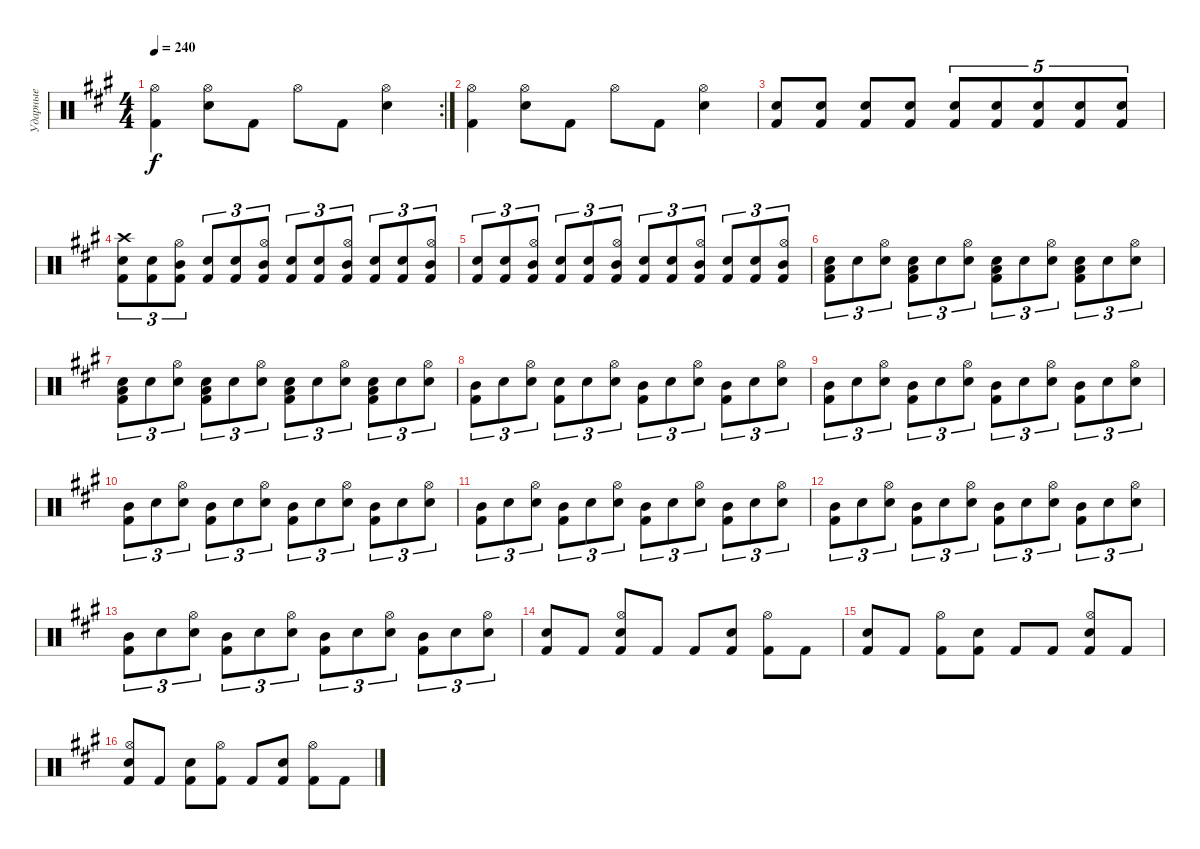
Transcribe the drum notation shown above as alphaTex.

\track ("Ударные" "Ударные") {instrument percussion}
\staff {score}
\articulation defaults
\rc 2
\ts (4 4)
\tempo 240
\clef neutral
\ks a
("Kick (hit) 2" "Hi-Hat (open)").4{dy f} ("Snare (hit) 2" "Hi-Hat (open)").8 "Kick (hit) 2".8 "Hi-Hat (open)".8 "Kick (hit) 2".8 ("Snare (hit) 2" "Hi-Hat (open)").4 |
("Kick (hit) 2" "Hi-Hat (open)").4 ("Snare (hit) 2" "Hi-Hat (open)").8 "Kick (hit) 2".8 "Hi-Hat (open)".8 "Kick (hit) 2".8 ("Snare (hit) 2" "Hi-Hat (open)").4 |
("Kick (hit) 2" "Snare (hit) 2").8 ("Kick (hit) 2" "Snare (hit) 2").8 ("Kick (hit) 2" "Snare (hit) 2").8 ("Kick (hit) 2" "Snare (hit) 2").8 ("Kick (hit) 2" "Snare (hit) 2").8{tu (5 4)} ("Kick (hit) 2" "Snare (hit) 2").8{tu (5 4)} ("Kick (hit) 2" "Snare (hit) 2").8{tu (5 4)} ("Kick (hit) 2" "Snare (hit) 2").8{tu (5 4)} ("Kick (hit) 2" "Snare (hit) 2").8{tu (5 4)} |
("Kick (hit) 2" "Snare (hit) 2" "Crash high (hit)").8{tu (3 2)} ("Kick (hit) 2" "Snare (hit) 2").8{tu (3 2)} ("Kick (hit) 2" "Mid Tom (hit)" "Hi-Hat (open)").8{tu (3 2)} ("Kick (hit) 2" "Snare (hit) 2").8{tu (3 2)} ("Kick (hit) 2" "Snare (hit) 2").8{tu (3 2)} ("Kick (hit) 2" "Mid Tom (hit)" "Hi-Hat (open)").8{tu (3 2)} ("Kick (hit) 2" "Snare (hit) 2").8{tu (3 2)} ("Kick (hit) 2" "Snare (hit) 2").8{tu (3 2)} ("Kick (hit) 2" "Mid Tom (hit)" "Hi-Hat (open)").8{tu (3 2)} ("Kick (hit) 2" "Snare (hit) 2").8{tu (3 2)} ("Kick (hit) 2" "Snare (hit) 2").8{tu (3 2)} ("Kick (hit) 2" "Mid Tom (hit)" "Hi-Hat (open)").8{tu (3 2)} |
("Kick (hit) 2" "Snare (hit) 2").8{tu (3 2)} ("Kick (hit) 2" "Snare (hit) 2").8{tu (3 2)} ("Kick (hit) 2" "Mid Tom (hit)" "Hi-Hat (open)").8{tu (3 2)} ("Kick (hit) 2" "Snare (hit) 2").8{tu (3 2)} ("Kick (hit) 2" "Snare (hit) 2").8{tu (3 2)} ("Kick (hit) 2" "Mid Tom (hit)" "Hi-Hat (open)").8{tu (3 2)} ("Kick (hit) 2" "Snare (hit) 2").8{tu (3 2)} ("Kick (hit) 2" "Snare (hit) 2").8{tu (3 2)} ("Kick (hit) 2" "Mid Tom (hit)" "Hi-Hat (open)").8{tu (3 2)} ("Kick (hit) 2" "Snare (hit) 2").8{tu (3 2)} ("Kick (hit) 2" "Snare (hit) 2").8{tu (3 2)} ("Kick (hit) 2" "Mid Tom (hit)" "Hi-Hat (open)").8{tu (3 2)} |
("Snare (hit) 2" "Kick (hit) 2" "Low Tom (hit)").8{tu (3 2)} "Snare (hit) 2".8{tu (3 2)} ("Snare (hit) 2" "Hi-Hat (open)").8{tu (3 2)} ("Snare (hit) 2" "Kick (hit) 2" "Low Tom (hit)").8{tu (3 2)} "Snare (hit) 2".8{tu (3 2)} ("Snare (hit) 2" "Hi-Hat (open)").8{tu (3 2)} ("Snare (hit) 2" "Kick (hit) 2" "Low Tom (hit)").8{tu (3 2)} "Snare (hit) 2".8{tu (3 2)} ("Snare (hit) 2" "Hi-Hat (open)").8{tu (3 2)} ("Snare (hit) 2" "Kick (hit) 2" "Low Tom (hit)").8{tu (3 2)} "Snare (hit) 2".8{tu (3 2)} ("Snare (hit) 2" "Hi-Hat (open)").8{tu (3 2)} |
("Snare (hit) 2" "Kick (hit) 2" "Low Tom (hit)").8{tu (3 2)} "Snare (hit) 2".8{tu (3 2)} ("Snare (hit) 2" "Hi-Hat (open)").8{tu (3 2)} ("Snare (hit) 2" "Kick (hit) 2" "Low Tom (hit)").8{tu (3 2)} "Snare (hit) 2".8{tu (3 2)} ("Snare (hit) 2" "Hi-Hat (open)").8{tu (3 2)} ("Snare (hit) 2" "Kick (hit) 2" "Low Tom (hit)").8{tu (3 2)} "Snare (hit) 2".8{tu (3 2)} ("Snare (hit) 2" "Hi-Hat (open)").8{tu (3 2)} ("Snare (hit) 2" "Kick (hit) 2" "Low Tom (hit)").8{tu (3 2)} "Snare (hit) 2".8{tu (3 2)} ("Snare (hit) 2" "Hi-Hat (open)").8{tu (3 2)} |
("Mid Tom (hit)" "Kick (hit) 2").8{tu (3 2)} "Snare (hit) 2".8{tu (3 2)} ("Snare (hit) 2" "Hi-Hat (open)").8{tu (3 2)} ("Snare (hit) 2" "Kick (hit) 2").8{tu (3 2)} "Snare (hit) 2".8{tu (3 2)} ("Snare (hit) 2" "Hi-Hat (open)").8{tu (3 2)} ("Mid Tom (hit)" "Kick (hit) 2").8{tu (3 2)} "Snare (hit) 2".8{tu (3 2)} ("Snare (hit) 2" "Hi-Hat (open)").8{tu (3 2)} ("Mid Tom (hit)" "Kick (hit) 2").8{tu (3 2)} "Snare (hit) 2".8{tu (3 2)} ("Snare (hit) 2" "Hi-Hat (open)").8{tu (3 2)} |
("Mid Tom (hit)" "Kick (hit) 2").8{tu (3 2)} "Snare (hit) 2".8{tu (3 2)} ("Snare (hit) 2" "Hi-Hat (open)").8{tu (3 2)} ("Mid Tom (hit)" "Kick (hit) 2").8{tu (3 2)} "Snare (hit) 2".8{tu (3 2)} ("Snare (hit) 2" "Hi-Hat (open)").8{tu (3 2)} ("Mid Tom (hit)" "Kick (hit) 2").8{tu (3 2)} "Snare (hit) 2".8{tu (3 2)} ("Snare (hit) 2" "Hi-Hat (open)").8{tu (3 2)} ("Mid Tom (hit)" "Kick (hit) 2").8{tu (3 2)} "Snare (hit) 2".8{tu (3 2)} ("Snare (hit) 2" "Hi-Hat (open)").8{tu (3 2)} |
("Mid Tom (hit)" "Kick (hit) 2").8{tu (3 2)} "Snare (hit) 2".8{tu (3 2)} ("Snare (hit) 2" "Hi-Hat (open)").8{tu (3 2)} ("Mid Tom (hit)" "Kick (hit) 2").8{tu (3 2)} "Snare (hit) 2".8{tu (3 2)} ("Snare (hit) 2" "Hi-Hat (open)").8{tu (3 2)} ("Mid Tom (hit)" "Kick (hit) 2").8{tu (3 2)} "Snare (hit) 2".8{tu (3 2)} ("Snare (hit) 2" "Hi-Hat (open)").8{tu (3 2)} ("Mid Tom (hit)" "Kick (hit) 2").8{tu (3 2)} "Snare (hit) 2".8{tu (3 2)} ("Snare (hit) 2" "Hi-Hat (open)").8{tu (3 2)} |
("Mid Tom (hit)" "Kick (hit) 2").8{tu (3 2)} "Snare (hit) 2".8{tu (3 2)} ("Snare (hit) 2" "Hi-Hat (open)").8{tu (3 2)} ("Mid Tom (hit)" "Kick (hit) 2").8{tu (3 2)} "Snare (hit) 2".8{tu (3 2)} ("Snare (hit) 2" "Hi-Hat (open)").8{tu (3 2)} ("Mid Tom (hit)" "Kick (hit) 2").8{tu (3 2)} "Snare (hit) 2".8{tu (3 2)} ("Snare (hit) 2" "Hi-Hat (open)").8{tu (3 2)} ("Mid Tom (hit)" "Kick (hit) 2").8{tu (3 2)} "Snare (hit) 2".8{tu (3 2)} ("Snare (hit) 2" "Hi-Hat (open)").8{tu (3 2)} |
("Mid Tom (hit)" "Kick (hit) 2").8{tu (3 2)} "Snare (hit) 2".8{tu (3 2)} ("Snare (hit) 2" "Hi-Hat (open)").8{tu (3 2)} ("Mid Tom (hit)" "Kick (hit) 2").8{tu (3 2)} "Snare (hit) 2".8{tu (3 2)} ("Snare (hit) 2" "Hi-Hat (open)").8{tu (3 2)} ("Mid Tom (hit)" "Kick (hit) 2").8{tu (3 2)} "Snare (hit) 2".8{tu (3 2)} ("Snare (hit) 2" "Hi-Hat (open)").8{tu (3 2)} ("Mid Tom (hit)" "Kick (hit) 2").8{tu (3 2)} "Snare (hit) 2".8{tu (3 2)} ("Snare (hit) 2" "Hi-Hat (open)").8{tu (3 2)} |
("Mid Tom (hit)" "Kick (hit) 2").8{tu (3 2)} "Snare (hit) 2".8{tu (3 2)} ("Snare (hit) 2" "Hi-Hat (open)").8{tu (3 2)} ("Mid Tom (hit)" "Kick (hit) 2").8{tu (3 2)} "Snare (hit) 2".8{tu (3 2)} ("Snare (hit) 2" "Hi-Hat (open)").8{tu (3 2)} ("Mid Tom (hit)" "Kick (hit) 2").8{tu (3 2)} "Snare (hit) 2".8{tu (3 2)} ("Snare (hit) 2" "Hi-Hat (open)").8{tu (3 2)} ("Mid Tom (hit)" "Kick (hit) 2").8{tu (3 2)} "Snare (hit) 2".8{tu (3 2)} ("Snare (hit) 2" "Hi-Hat (open)").8{tu (3 2)} |
("Kick (hit) 2" "Snare (hit) 2").8 "Kick (hit) 2".8 ("Kick (hit) 2" "Snare (hit) 2" "Hi-Hat (open)").8 "Kick (hit) 2".8 "Kick (hit) 2".8 ("Kick (hit) 2" "Snare (hit) 2").8 ("Kick (hit) 2" "Hi-Hat (open)").8 "Kick (hit) 2".8 |
("Kick (hit) 2" "Snare (hit) 2").8 "Kick (hit) 2".8 ("Kick (hit) 2" "Hi-Hat (open)").8 ("Kick (hit) 2" "Snare (hit) 2").8 "Kick (hit) 2".8 "Kick (hit) 2".8 ("Kick (hit) 2" "Snare (hit) 2" "Hi-Hat (open)").8 "Kick (hit) 2".8 |
("Kick (hit) 2" "Snare (hit) 2" "Hi-Hat (open)").8 "Kick (hit) 2".8 ("Kick (hit) 2" "Snare (hit) 2").8 ("Kick (hit) 2" "Hi-Hat (open)").8 "Kick (hit) 2".8 ("Kick (hit) 2" "Snare (hit) 2").8 ("Kick (hit) 2" "Hi-Hat (open)").8 "Kick (hit) 2".8
